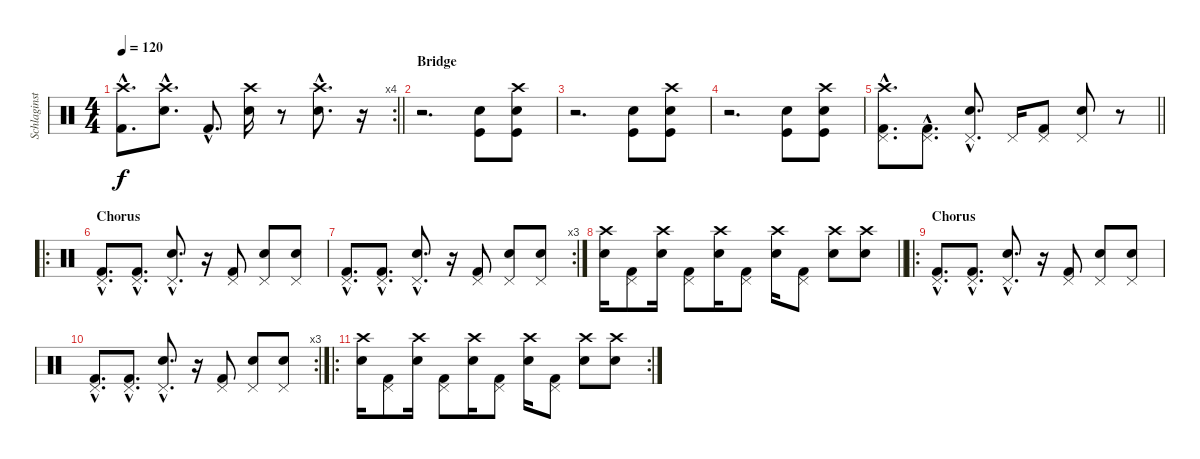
\track ("Schlaginstrument" "Schlaginst") {instrument percussion}
\staff {score}
\articulation defaults
\rc 4
\ts (4 4)
\tempo 120
\clef neutral
\barLineRight lightlight
\ks c
("Crash high (hit)"{hac} "Kick (hit) 2"{hac}).8{d dy f} ("Crash high (hit)"{hac} "Snare (hit) 2"{hac}).8{d} "Kick (hit) 2"{hac}.8{d} ("Crash high (hit)" "Snare (hit) 2").16 r.8 ("Crash high (hit)"{hac} "Snare (hit) 2"{hac}).8{d} r.16 |
\section ("" "Bridge")
r.2{d} ("Kick (hit)" "Snare (hit) 2").8 ("Crash high (hit)" "Kick (hit)" "Snare (hit) 2").8 |
r.2{d} ("Kick (hit)" "Snare (hit) 2").8 ("Crash high (hit)" "Kick (hit)" "Snare (hit) 2").8 |
r.2{d} ("Kick (hit)" "Snare (hit) 2").8 ("Crash high (hit)" "Kick (hit)" "Snare (hit) 2").8 |
\barLineRight lightlight
("Crash high (hit)"{hac} "Pedal Hi-Hat (hit)"{hac} "Kick (hit) 2"{hac}).8{d} ("Pedal Hi-Hat (hit)"{hac} "Kick (hit) 2"{hac}).8{d} ("Pedal Hi-Hat (hit)"{hac} "Snare (hit) 2"{hac}).8{d} "Pedal Hi-Hat (hit)".16 ("Pedal Hi-Hat (hit)" "Kick (hit) 2").8 ("Pedal Hi-Hat (hit)" "Snare (hit) 2").8 r.8 |
\ro
\section ("" "Chorus")
("Pedal Hi-Hat (hit)"{hac} "Kick (hit) 2"{hac}).8{d} ("Pedal Hi-Hat (hit)"{hac} "Kick (hit) 2"{hac}).8{d} ("Pedal Hi-Hat (hit)"{hac} "Snare (hit) 2"{hac}).8{d} r.16 ("Pedal Hi-Hat (hit)" "Kick (hit) 2").8 ("Pedal Hi-Hat (hit)" "Snare (hit) 2").8 ("Pedal Hi-Hat (hit)" "Snare (hit) 2").8 |
\rc 3
("Pedal Hi-Hat (hit)"{hac} "Kick (hit) 2"{hac}).8{d} ("Pedal Hi-Hat (hit)"{hac} "Kick (hit) 2"{hac}).8{d} ("Pedal Hi-Hat (hit)"{hac} "Snare (hit) 2"{hac}).8{d} r.16 ("Pedal Hi-Hat (hit)" "Kick (hit) 2").8 ("Pedal Hi-Hat (hit)" "Snare (hit) 2").8 ("Pedal Hi-Hat (hit)" "Snare (hit) 2").8 |
\barLineRight lightlight
("Crash high (hit)" "Snare (hit) 2").16 ("Pedal Hi-Hat (hit)" "Kick (hit) 2").8 ("Crash high (hit)" "Snare (hit) 2").16 ("Pedal Hi-Hat (hit)" "Kick (hit) 2").8 ("Crash high (hit)" "Snare (hit) 2").16 ("Pedal Hi-Hat (hit)" "Kick (hit) 2").8 ("Crash high (hit)" "Snare (hit) 2").16 ("Pedal Hi-Hat (hit)" "Kick (hit) 2").8 ("Crash high (hit)" "Snare (hit) 2").8 ("Crash high (hit)" "Snare (hit) 2").8 |
\ro
\section ("" "Chorus")
("Pedal Hi-Hat (hit)"{hac} "Kick (hit) 2"{hac}).8{d} ("Pedal Hi-Hat (hit)"{hac} "Kick (hit) 2"{hac}).8{d} ("Pedal Hi-Hat (hit)"{hac} "Snare (hit) 2"{hac}).8{d} r.16 ("Pedal Hi-Hat (hit)" "Kick (hit) 2").8 ("Pedal Hi-Hat (hit)" "Snare (hit) 2").8 ("Pedal Hi-Hat (hit)" "Snare (hit) 2").8 |
\rc 3
("Pedal Hi-Hat (hit)"{hac} "Kick (hit) 2"{hac}).8{d} ("Pedal Hi-Hat (hit)"{hac} "Kick (hit) 2"{hac}).8{d} ("Pedal Hi-Hat (hit)"{hac} "Snare (hit) 2"{hac}).8{d} r.16 ("Pedal Hi-Hat (hit)" "Kick (hit) 2").8 ("Pedal Hi-Hat (hit)" "Snare (hit) 2").8 ("Pedal Hi-Hat (hit)" "Snare (hit) 2").8 |
\ro
\rc 2
("Crash high (hit)" "Snare (hit) 2").16 ("Pedal Hi-Hat (hit)" "Kick (hit) 2").8 ("Crash high (hit)" "Snare (hit) 2").16 ("Pedal Hi-Hat (hit)" "Kick (hit) 2").8 ("Crash high (hit)" "Snare (hit) 2").16 ("Pedal Hi-Hat (hit)" "Kick (hit) 2").8 ("Crash high (hit)" "Snare (hit) 2").16 ("Pedal Hi-Hat (hit)" "Kick (hit) 2").8 ("Crash high (hit)" "Snare (hit) 2").8 ("Crash high (hit)" "Snare (hit) 2").8
